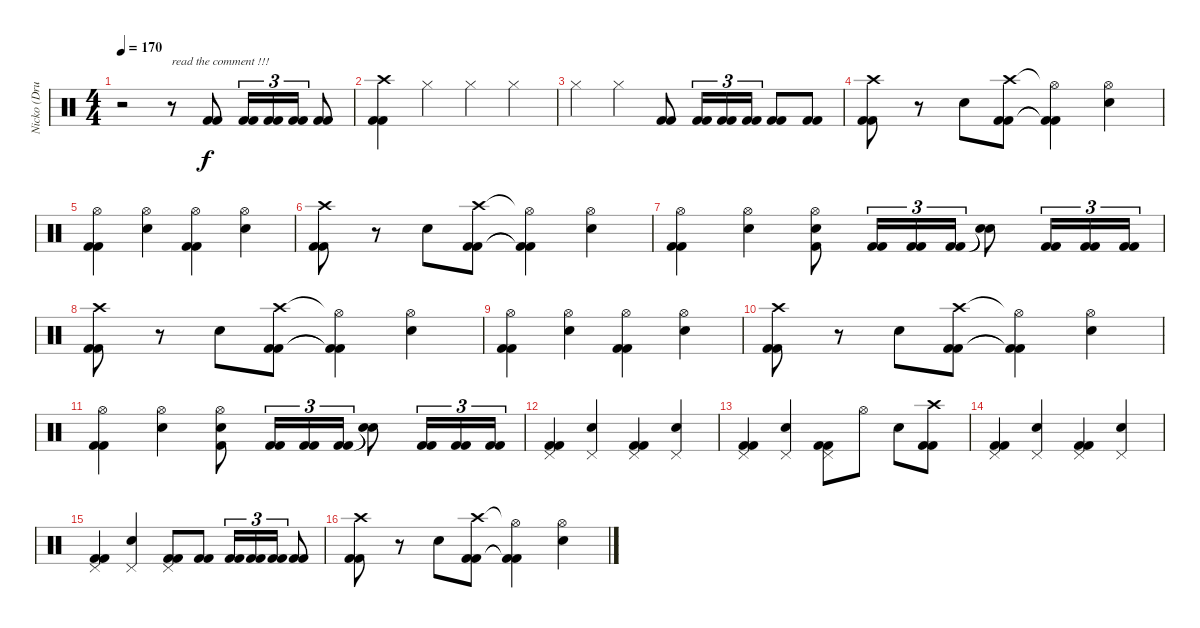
\track ("Nicko (Drums)" "Nicko (Dru") {instrument percussion}
\staff {score}
\articulation defaults
\ts (4 4)
\tempo 170
\clef neutral
\ks c
r.2{dy f} r.8{txt "read the comment !!!"} ("Kick (hit) 2" "Kick (hit) 2").8 ("Kick (hit) 2" "Kick (hit) 2").16{tu (3 2)} ("Kick (hit) 2" "Kick (hit) 2").16{tu (3 2)} ("Kick (hit) 2" "Kick (hit) 2").16{tu (3 2)} ("Kick (hit) 2" "Kick (hit) 2").8 |
("Crash high (hit)" "Kick (hit) 2" "Kick (hit) 2").4 "Hi-Hat (closed)".4 "Hi-Hat (closed)".4 "Hi-Hat (closed)".4 |
"Hi-Hat (closed)".4 "Hi-Hat (closed)".4 ("Kick (hit) 2" "Kick (hit) 2").8 ("Kick (hit) 2" "Kick (hit) 2").16{tu (3 2)} ("Kick (hit) 2" "Kick (hit) 2").16{tu (3 2)} ("Kick (hit) 2" "Kick (hit) 2").16{tu (3 2)} ("Kick (hit) 2" "Kick (hit) 2").8 ("Kick (hit) 2" "Kick (hit) 2").8 |
("Crash high (hit)" "Kick (hit) 2" "Kick (hit) 2").8 r.8 "Snare (hit) 2".8 ("Crash high (hit)" "Kick (hit) 2" "Kick (hit) 2").8 ("Hi-Hat (open)"{t} "Kick (hit) 2"{t} "Kick (hit) 2"{t}).4 ("Hi-Hat (open)" "Snare (hit) 2").4 |
("Hi-Hat (open)" "Kick (hit) 2" "Kick (hit) 2").4 ("Hi-Hat (open)" "Snare (hit) 2").4 ("Hi-Hat (open)" "Kick (hit) 2" "Kick (hit) 2").4 ("Hi-Hat (open)" "Snare (hit) 2").4 |
("Crash high (hit)" "Kick (hit) 2" "Kick (hit) 2").8 r.8 "Snare (hit) 2".8 ("Crash high (hit)" "Kick (hit) 2" "Kick (hit) 2").8 ("Hi-Hat (open)"{t} "Kick (hit) 2"{t} "Kick (hit) 2"{t}).4 ("Hi-Hat (open)" "Snare (hit) 2").4 |
("Hi-Hat (open)" "Kick (hit) 2" "Kick (hit) 2").4 ("Hi-Hat (open)" "Snare (hit) 2").4 ("Hi-Hat (open)" "Snare (hit) 2" "Kick (hit) 2").8 ("Kick (hit) 2" "Kick (hit) 2").16{tu (3 2)} ("Kick (hit) 2" "Kick (hit) 2").16{tu (3 2)} ("Kick (hit) 2" "Kick (hit) 2").16{tu (3 2)} ("Snare (hit)"{t} "Snare (hit)"{t}).8 ("Kick (hit) 2" "Kick (hit) 2").16{tu (3 2)} ("Kick (hit) 2" "Kick (hit) 2").16{tu (3 2)} ("Kick (hit) 2" "Kick (hit) 2").16{tu (3 2)} |
("Crash high (hit)" "Kick (hit) 2" "Kick (hit) 2").8 r.8 "Snare (hit) 2".8 ("Crash high (hit)" "Kick (hit) 2" "Kick (hit) 2").8 ("Hi-Hat (open)"{t} "Kick (hit) 2"{t} "Kick (hit) 2"{t}).4 ("Hi-Hat (open)" "Snare (hit) 2").4 |
("Hi-Hat (open)" "Kick (hit) 2" "Kick (hit) 2").4 ("Hi-Hat (open)" "Snare (hit) 2").4 ("Hi-Hat (open)" "Kick (hit) 2" "Kick (hit) 2").4 ("Hi-Hat (open)" "Snare (hit) 2").4 |
("Crash high (hit)" "Kick (hit) 2" "Kick (hit) 2").8 r.8 "Snare (hit) 2".8 ("Crash high (hit)" "Kick (hit) 2" "Kick (hit) 2").8 ("Hi-Hat (open)"{t} "Kick (hit) 2"{t} "Kick (hit) 2"{t}).4 ("Hi-Hat (open)" "Snare (hit) 2").4 |
("Hi-Hat (open)" "Kick (hit) 2" "Kick (hit) 2").4 ("Hi-Hat (open)" "Snare (hit) 2").4 ("Hi-Hat (open)" "Snare (hit) 2" "Kick (hit) 2").8 ("Kick (hit) 2" "Kick (hit) 2").16{tu (3 2)} ("Kick (hit) 2" "Kick (hit) 2").16{tu (3 2)} ("Kick (hit) 2" "Kick (hit) 2").16{tu (3 2)} ("Snare (hit)"{t} "Snare (hit)"{t}).8 ("Kick (hit) 2" "Kick (hit) 2").16{tu (3 2)} ("Kick (hit) 2" "Kick (hit) 2").16{tu (3 2)} ("Kick (hit) 2" "Kick (hit) 2").16{tu (3 2)} |
("Pedal Hi-Hat (hit)" "Kick (hit) 2" "Kick (hit) 2").4 ("Pedal Hi-Hat (hit)" "Snare (hit) 2").4 ("Pedal Hi-Hat (hit)" "Kick (hit) 2" "Kick (hit) 2").4 ("Pedal Hi-Hat (hit)" "Snare (hit) 2").4 |
("Pedal Hi-Hat (hit)" "Kick (hit) 2" "Kick (hit) 2").4 ("Pedal Hi-Hat (hit)" "Snare (hit) 2").4 ("Pedal Hi-Hat (hit)" "Kick (hit) 2" "Kick (hit) 2").8 "Hi-Hat (open)".8 "Snare (hit) 2".8 ("Crash high (hit)" "Kick (hit) 2" "Kick (hit) 2").8 |
("Pedal Hi-Hat (hit)" "Kick (hit) 2" "Kick (hit) 2").4 ("Pedal Hi-Hat (hit)" "Snare (hit) 2").4 ("Pedal Hi-Hat (hit)" "Kick (hit) 2" "Kick (hit) 2").4 ("Pedal Hi-Hat (hit)" "Snare (hit) 2").4 |
("Pedal Hi-Hat (hit)" "Kick (hit) 2" "Kick (hit) 2").4 ("Pedal Hi-Hat (hit)" "Snare (hit) 2").4 ("Pedal Hi-Hat (hit)" "Kick (hit) 2" "Kick (hit) 2").8 ("Kick (hit) 2" "Kick (hit) 2").8 ("Kick (hit) 2" "Kick (hit) 2").16{tu (3 2)} ("Kick (hit) 2" "Kick (hit) 2").16{tu (3 2)} ("Kick (hit) 2" "Kick (hit) 2").16{tu (3 2)} ("Kick (hit) 2" "Kick (hit) 2").8 |
("Crash high (hit)" "Kick (hit) 2" "Kick (hit) 2").8 r.8 "Snare (hit) 2".8 ("Crash high (hit)" "Kick (hit) 2" "Kick (hit) 2").8 ("Hi-Hat (open)"{t} "Kick (hit) 2"{t} "Kick (hit) 2"{t}).4 ("Hi-Hat (open)" "Snare (hit) 2").4
